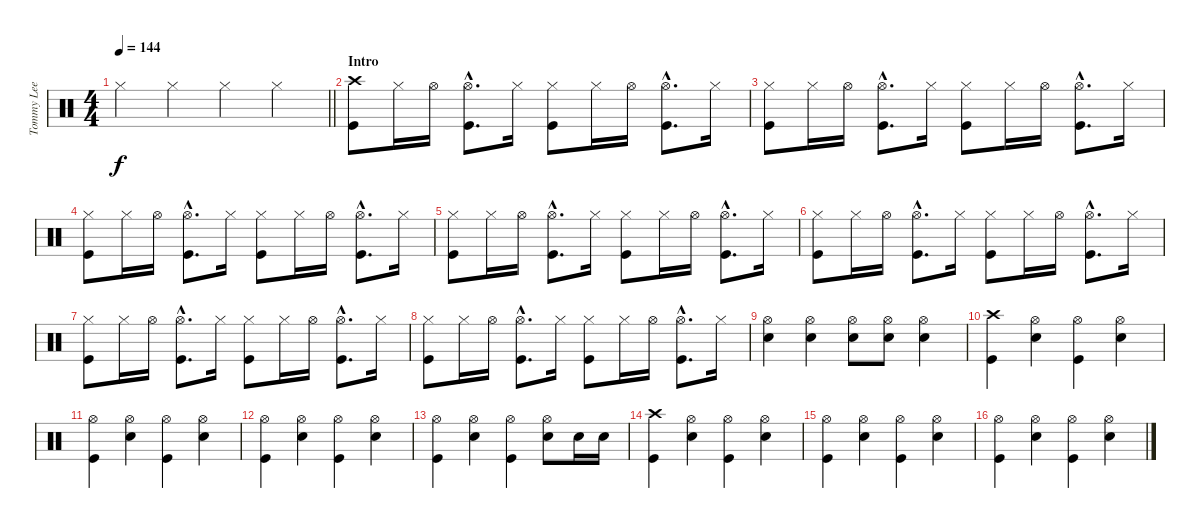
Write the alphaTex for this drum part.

\track ("Tommy Lee" "Tommy Lee") {instrument percussion}
\staff {score}
\articulation defaults
\ts (4 4)
\tempo 144
\clef neutral
\barLineRight lightlight
\ks c "Hi-Hat (closed)".4{dy f} "Hi-Hat (closed)".4 "Hi-Hat (closed)".4 "Hi-Hat (closed)".4
|
\section ("" "Intro")
("Crash high (hit)" "Kick (hit)").8 "Hi-Hat (closed)".16 "Hi-Hat (open)".16 ("Hi-Hat (open)"{hac} "Kick (hit)"{hac}).8{d} "Hi-Hat (closed)".16 ("Hi-Hat (closed)" "Kick (hit)").8 "Hi-Hat (closed)".16 "Hi-Hat (open)".16 ("Hi-Hat (open)"{hac} "Kick (hit)"{hac}).8{d} "Hi-Hat (closed)".16 |
("Hi-Hat (closed)" "Kick (hit)").8 "Hi-Hat (closed)".16 "Hi-Hat (open)".16 ("Hi-Hat (open)"{hac} "Kick (hit)"{hac}).8{d} "Hi-Hat (closed)".16 ("Hi-Hat (closed)" "Kick (hit)").8 "Hi-Hat (closed)".16 "Hi-Hat (open)".16 ("Hi-Hat (open)"{hac} "Kick (hit)"{hac}).8{d} "Hi-Hat (closed)".16 |
("Hi-Hat (closed)" "Kick (hit)").8 "Hi-Hat (closed)".16 "Hi-Hat (open)".16 ("Hi-Hat (open)"{hac} "Kick (hit)"{hac}).8{d} "Hi-Hat (closed)".16 ("Hi-Hat (closed)" "Kick (hit)").8 "Hi-Hat (closed)".16 "Hi-Hat (open)".16 ("Hi-Hat (open)"{hac} "Kick (hit)"{hac}).8{d} "Hi-Hat (closed)".16 |
("Hi-Hat (closed)" "Kick (hit)").8 "Hi-Hat (closed)".16 "Hi-Hat (open)".16 ("Hi-Hat (open)"{hac} "Kick (hit)"{hac}).8{d} "Hi-Hat (closed)".16 ("Hi-Hat (closed)" "Kick (hit)").8 "Hi-Hat (closed)".16 "Hi-Hat (open)".16 ("Hi-Hat (open)"{hac} "Kick (hit)"{hac}).8{d} "Hi-Hat (closed)".16 |
("Hi-Hat (closed)" "Kick (hit)").8 "Hi-Hat (closed)".16 "Hi-Hat (open)".16 ("Hi-Hat (open)"{hac} "Kick (hit)"{hac}).8{d} "Hi-Hat (closed)".16 ("Hi-Hat (closed)" "Kick (hit)").8 "Hi-Hat (closed)".16 "Hi-Hat (open)".16 ("Hi-Hat (open)"{hac} "Kick (hit)"{hac}).8{d} "Hi-Hat (closed)".16 |
("Hi-Hat (closed)" "Kick (hit)").8 "Hi-Hat (closed)".16 "Hi-Hat (open)".16 ("Hi-Hat (open)"{hac} "Kick (hit)"{hac}).8{d} "Hi-Hat (closed)".16 ("Hi-Hat (closed)" "Kick (hit)").8 "Hi-Hat (closed)".16 "Hi-Hat (open)".16 ("Hi-Hat (open)"{hac} "Kick (hit)"{hac}).8{d} "Hi-Hat (closed)".16 |
("Hi-Hat (closed)" "Kick (hit)").8 "Hi-Hat (closed)".16 "Hi-Hat (open)".16 ("Hi-Hat (open)"{hac} "Kick (hit)"{hac}).8{d} "Hi-Hat (closed)".16 ("Hi-Hat (closed)" "Kick (hit)").8 "Hi-Hat (closed)".16 "Hi-Hat (open)".16 ("Hi-Hat (open)"{hac} "Kick (hit)"{hac}).8{d} "Hi-Hat (closed)".16 |
("Hi-Hat (open)" "Snare (hit) 2").4 ("Hi-Hat (open)" "Snare (hit) 2").4 ("Hi-Hat (open)" "Snare (hit) 2").8 ("Hi-Hat (open)" "Snare (hit) 2").8 ("Hi-Hat (open)" "Snare (hit) 2").4 |
("Crash high (hit)" "Kick (hit)").4 ("Hi-Hat (open)" "Snare (hit) 2").4 ("Hi-Hat (open)" "Kick (hit)").4 ("Hi-Hat (open)" "Snare (hit) 2").4 |
("Hi-Hat (open)" "Kick (hit)").4 ("Hi-Hat (open)" "Snare (hit) 2").4 ("Hi-Hat (open)" "Kick (hit)").4 ("Hi-Hat (open)" "Snare (hit) 2").4 |
("Hi-Hat (open)" "Kick (hit)").4 ("Hi-Hat (open)" "Snare (hit) 2").4 ("Hi-Hat (open)" "Kick (hit)").4 ("Hi-Hat (open)" "Snare (hit) 2").4 |
("Hi-Hat (open)" "Kick (hit)").4 ("Hi-Hat (open)" "Snare (hit) 2").4 ("Hi-Hat (open)" "Kick (hit)").4 ("Hi-Hat (open)" "Snare (hit) 2").8 "Snare (hit) 2".16 "Snare (hit) 2".16 |
("Crash high (hit)" "Kick (hit)").4 ("Hi-Hat (open)" "Snare (hit) 2").4 ("Hi-Hat (open)" "Kick (hit)").4 ("Hi-Hat (open)" "Snare (hit) 2").4 |
("Hi-Hat (open)" "Kick (hit)").4 ("Hi-Hat (open)" "Snare (hit) 2").4 ("Hi-Hat (open)" "Kick (hit)").4 ("Hi-Hat (open)" "Snare (hit) 2").4 |
("Hi-Hat (open)" "Kick (hit)").4 ("Hi-Hat (open)" "Snare (hit) 2").4 ("Hi-Hat (open)" "Kick (hit)").4 ("Hi-Hat (open)" "Snare (hit) 2").4
